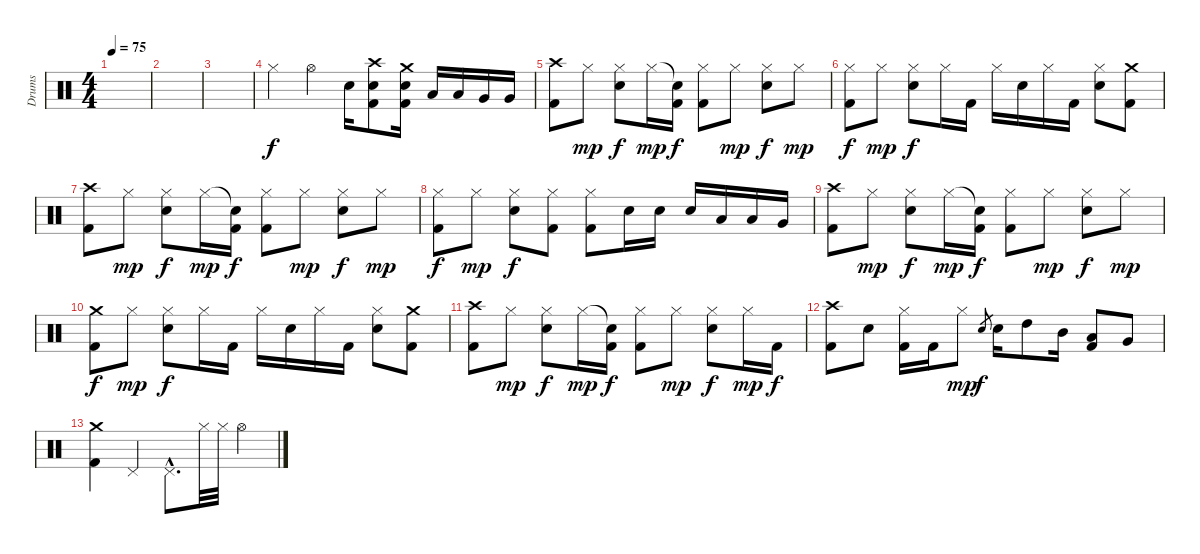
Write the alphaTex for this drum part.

\track ("Drums" "Drums") {instrument percussion}
\staff {score}
\articulation defaults
\ts (4 4)
\tempo 75
\clef neutral
\ks c
|
|
|
"Hi-Hat (closed)".4 "Hi-Hat (open)".4 "Electric Snare (hit)".16{dy f} ("Crash high (hit)" "Kick (hit) 2" "Electric Snare (hit)").8 ("Crash medium (hit)" "Kick (hit) 2" "Electric Snare (hit)").16 "Low Tom (hit)".16 "Low Tom (hit)".16 "Very Low Tom (hit)".16 "Very Low Tom (hit)".16 |
("Crash high (hit)" "Kick (hit) 2").8 "Hi-Hat (closed)".8{dy mp} ("Hi-Hat (closed)" "Electric Snare (hit)").8{dy f} "Hi-Hat (closed)".16{dy mp} ("Snare (hit)"{t} "Kick (hit) 2").16{dy f} ("Hi-Hat (closed)" "Kick (hit) 2").8 "Hi-Hat (closed)".8{dy mp} ("Electric Snare (hit)" "Hi-Hat (closed)").8{dy f} "Hi-Hat (closed)".8{dy mp} |
("Hi-Hat (closed)" "Kick (hit) 2").8{dy f} "Hi-Hat (closed)".8{dy mp} ("Hi-Hat (closed)" "Electric Snare (hit)").8{dy f} "Hi-Hat (closed)".16 "Kick (hit) 2".16 "Hi-Hat (closed)".16 "Electric Snare (hit)".16 "Hi-Hat (closed)".16 "Kick (hit) 2".16 ("Hi-Hat (closed)" "Electric Snare (hit)").8 ("Kick (hit) 2" "Crash medium (hit)").8 |
("Crash high (hit)" "Kick (hit) 2").8 "Hi-Hat (closed)".8{dy mp} ("Hi-Hat (closed)" "Electric Snare (hit)").8{dy f} "Hi-Hat (closed)".16{dy mp} ("Snare (hit)"{t} "Kick (hit) 2").16{dy f} ("Hi-Hat (closed)" "Kick (hit) 2").8 "Hi-Hat (closed)".8{dy mp} ("Electric Snare (hit)" "Hi-Hat (closed)").8{dy f} "Hi-Hat (closed)".8{dy mp} |
("Hi-Hat (closed)" "Kick (hit) 2").8{dy f} "Hi-Hat (closed)".8{dy mp} ("Electric Snare (hit)" "Hi-Hat (closed)").8{dy f} ("Hi-Hat (closed)" "Kick (hit) 2").8 ("Hi-Hat (closed)" "Kick (hit) 2").8 "Electric Snare (hit)".16 "Electric Snare (hit)".16 "Electric Snare (hit)".16 "Low Tom (hit)".16 "Low Tom (hit)".16 "Very Low Tom (hit)".16 |
("Crash high (hit)" "Kick (hit) 2").8 "Hi-Hat (closed)".8{dy mp} ("Hi-Hat (closed)" "Electric Snare (hit)").8{dy f} "Hi-Hat (closed)".16{dy mp} ("Snare (hit)"{t} "Kick (hit) 2").16{dy f} ("Hi-Hat (closed)" "Kick (hit) 2").8 "Hi-Hat (closed)".8{dy mp} ("Electric Snare (hit)" "Hi-Hat (closed)").8{dy f} "Hi-Hat (closed)".8{dy mp} |
("Crash medium (hit)" "Kick (hit) 2").8{dy f} "Hi-Hat (closed)".8{dy mp} ("Hi-Hat (closed)" "Electric Snare (hit)").8{dy f} "Hi-Hat (closed)".16 "Kick (hit) 2".16 "Hi-Hat (closed)".16 "Electric Snare (hit)".16 "Hi-Hat (closed)".16 "Kick (hit) 2".16 ("Hi-Hat (closed)" "Electric Snare (hit)").8 ("Kick (hit) 2" "Crash medium (hit)").8 |
("Crash high (hit)" "Kick (hit) 2").8 "Hi-Hat (closed)".8{dy mp} ("Hi-Hat (closed)" "Electric Snare (hit)").8{dy f} "Hi-Hat (closed)".16{dy mp} ("Snare (hit)"{t} "Kick (hit) 2").16{dy f} ("Hi-Hat (closed)" "Kick (hit) 2").8 "Hi-Hat (closed)".8{dy mp} ("Electric Snare (hit)" "Hi-Hat (closed)").8{dy f} "Hi-Hat (closed)".16{dy mp} "Kick (hit) 2".16{dy f} |
("Crash high (hit)" "Kick (hit) 2").8 "Electric Snare (hit)".8 ("Hi-Hat (closed)" "Kick (hit) 2").16 "Kick (hit) 2".16 "Hi-Hat (closed)".8{dy mp} "Electric Snare (hit)".8{gr dy f} "Electric Snare (hit)".16 "High Tom (hit)".8 "Mid Tom (hit)".16 ("Low Tom (hit)" "Kick (hit) 2").8 "Very Low Tom (hit)".8 |
("Crash medium (hit)" "Kick (hit) 2").4 "Pedal Hi-Hat (hit)".4 "Pedal Hi-Hat (hit)"{hac}.8{d} "Hi-Hat (closed)".32 "Hi-Hat (closed)".32 "Hi-Hat (open)".4
